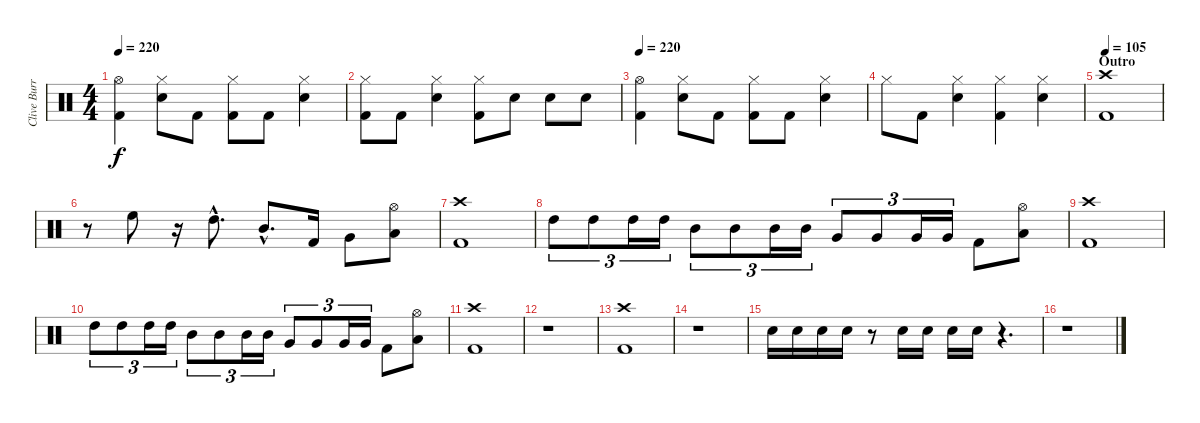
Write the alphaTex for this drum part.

\track ("Clive Burr (Drums)" "Clive Burr") {instrument percussion}
\staff {score}
\articulation defaults
\ts (4 4)
\tempo 220
\clef neutral
\ks c
("Hi-Hat (open)" "Kick (hit) 2").4{dy f} ("Electric Snare (hit)" "Hi-Hat (closed)").8 "Kick (hit) 2".8 ("Hi-Hat (closed)" "Kick (hit) 2").8 "Kick (hit) 2".8 ("Electric Snare (hit)" "Hi-Hat (closed)").4 |
("Hi-Hat (closed)" "Kick (hit) 2").8 "Kick (hit) 2".8 ("Electric Snare (hit)" "Hi-Hat (closed)").4 ("Hi-Hat (closed)" "Kick (hit) 2").8 "Electric Snare (hit)".8 "Electric Snare (hit)".8 "Electric Snare (hit)".8 |
\tempo 220
("Hi-Hat (open)" "Kick (hit) 2").4 ("Electric Snare (hit)" "Hi-Hat (closed)").8 "Kick (hit) 2".8 ("Hi-Hat (closed)" "Kick (hit) 2").8 "Kick (hit) 2".8 ("Electric Snare (hit)" "Hi-Hat (closed)").4 |
"Hi-Hat (closed)".8 "Kick (hit) 2".8 ("Electric Snare (hit)" "Hi-Hat (closed)").4 ("Hi-Hat (closed)" "Kick (hit) 2").4 ("Electric Snare (hit)" "Hi-Hat (closed)").4 |
\section ("" "Outro")
\tempo 105
("Crash high (hit)" "Kick (hit) 2").1 |
r.8 "High Floor Tom (hit)".8 r.16 "High Tom (hit)"{hac}.8{d} "Mid Tom (hit)"{hac}.8{d} "Kick (hit) 2".16 "Very Low Tom (hit)".8 ("Hi-Hat (open)" "Low Floor Tom (hit)").8 |
("Crash high (hit)" "Kick (hit) 2").1 |
"High Tom (hit)".8{tu (3 2)} "High Tom (hit)".8{tu (3 2)} "High Tom (hit)".16{tu (3 2)} "High Tom (hit)".16{tu (3 2)} "Mid Tom (hit)".8{tu (3 2)} "Mid Tom (hit)".8{tu (3 2)} "Mid Tom (hit)".16{tu (3 2)} "Mid Tom (hit)".16{tu (3 2)} "Very Low Tom (hit)".8{tu (3 2)} "Very Low Tom (hit)".8{tu (3 2)} "Very Low Tom (hit)".16{tu (3 2)} "Very Low Tom (hit)".16{tu (3 2)} "Kick (hit) 2".8 ("Hi-Hat (open)" "Low Floor Tom (hit)").8 |
("Crash high (hit)" "Kick (hit) 2").1 |
"High Tom (hit)".8{tu (3 2)} "High Tom (hit)".8{tu (3 2)} "High Tom (hit)".16{tu (3 2)} "High Tom (hit)".16{tu (3 2)} "Mid Tom (hit)".8{tu (3 2)} "Mid Tom (hit)".8{tu (3 2)} "Mid Tom (hit)".16{tu (3 2)} "Mid Tom (hit)".16{tu (3 2)} "Very Low Tom (hit)".8{tu (3 2)} "Very Low Tom (hit)".8{tu (3 2)} "Very Low Tom (hit)".16{tu (3 2)} "Very Low Tom (hit)".16{tu (3 2)} "Kick (hit) 2".8 ("Hi-Hat (open)" "Low Floor Tom (hit)").8 |
("Crash high (hit)" "Kick (hit) 2").1 |
r.1 |
("Crash high (hit)" "Kick (hit) 2").1 |
r.1 |
"Electric Snare (hit)".16 "Electric Snare (hit)".16 "Electric Snare (hit)".16 "Electric Snare (hit)".16 r.8 "Electric Snare (hit)".16 "Electric Snare (hit)".16 "Electric Snare (hit)".16 "Electric Snare (hit)".16 r.4{d} |
r.1
